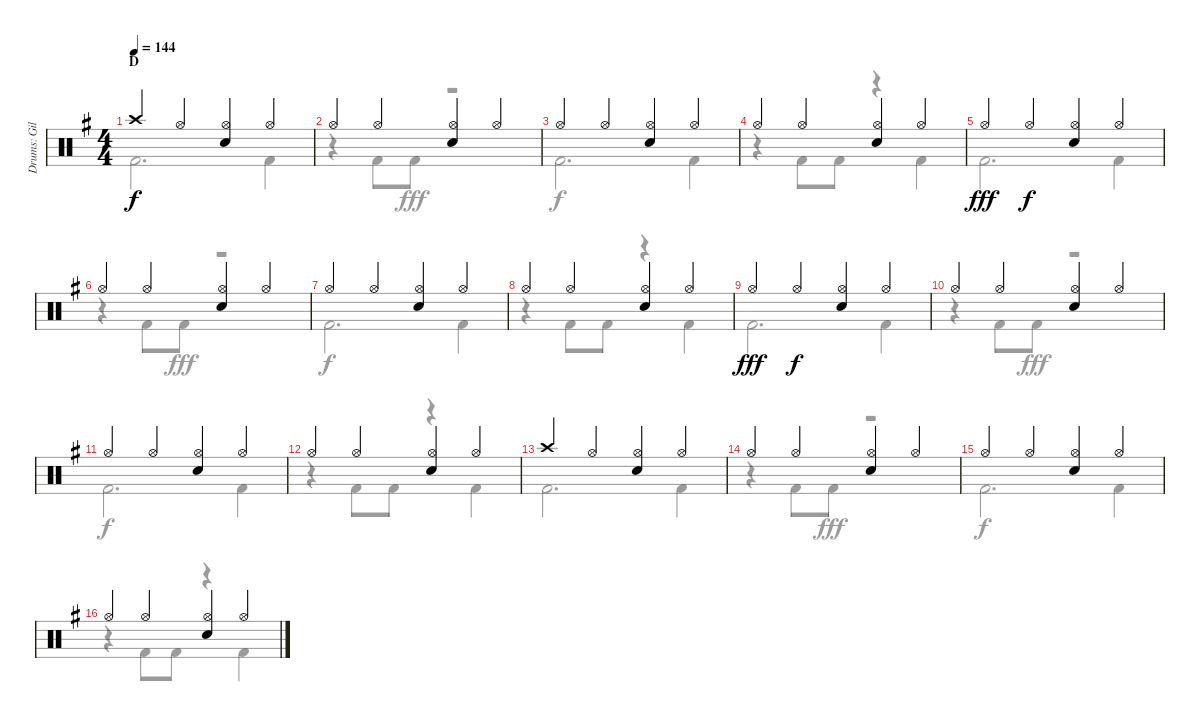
\track ("Drums: Gil" "Drums: Gil") {instrument percussion}
\staff {score}
\articulation defaults
\voice
\ts (4 4)
\section ("" "D")
\tempo 144
\clef neutral
\ks g "Crash high (hit)".4{dy f} "Hi-Hat (open)".4
("Hi-Hat (open)" "Snare (hit) 2").4 "Hi-Hat (open)".4 |
"Hi-Hat (open)".4 "Hi-Hat (open)".4 ("Hi-Hat (open)" "Snare (hit) 2").4 "Hi-Hat (open)".4 |
"Hi-Hat (open)".4 "Hi-Hat (open)".4 ("Hi-Hat (open)" "Snare (hit) 2").4 "Hi-Hat (open)".4 |
"Hi-Hat (open)".4 "Hi-Hat (open)".4 ("Hi-Hat (open)" "Snare (hit) 2").4 "Hi-Hat (open)".4 |
"Hi-Hat (open)".4{dy fff} "Hi-Hat (open)".4{dy f} ("Hi-Hat (open)" "Snare (hit) 2").4 "Hi-Hat (open)".4 |
"Hi-Hat (open)".4 "Hi-Hat (open)".4 ("Hi-Hat (open)" "Snare (hit) 2").4 "Hi-Hat (open)".4 |
"Hi-Hat (open)".4 "Hi-Hat (open)".4 ("Hi-Hat (open)" "Snare (hit) 2").4 "Hi-Hat (open)".4 |
"Hi-Hat (open)".4 "Hi-Hat (open)".4 ("Hi-Hat (open)" "Snare (hit) 2").4 "Hi-Hat (open)".4 |
"Hi-Hat (open)".4{dy fff} "Hi-Hat (open)".4{dy f} ("Hi-Hat (open)" "Snare (hit) 2").4 "Hi-Hat (open)".4 |
"Hi-Hat (open)".4 "Hi-Hat (open)".4 ("Hi-Hat (open)" "Snare (hit) 2").4 "Hi-Hat (open)".4 |
"Hi-Hat (open)".4 "Hi-Hat (open)".4 ("Hi-Hat (open)" "Snare (hit) 2").4 "Hi-Hat (open)".4 |
"Hi-Hat (open)".4 "Hi-Hat (open)".4 ("Hi-Hat (open)" "Snare (hit) 2").4 "Hi-Hat (open)".4 |
"Crash high (hit)".4 "Hi-Hat (open)".4 ("Hi-Hat (open)" "Snare (hit) 2").4 "Hi-Hat (open)".4 |
"Hi-Hat (open)".4 "Hi-Hat (open)".4 ("Hi-Hat (open)" "Snare (hit) 2").4 "Hi-Hat (open)".4 |
"Hi-Hat (open)".4 "Hi-Hat (open)".4 ("Hi-Hat (open)" "Snare (hit) 2").4 "Hi-Hat (open)".4 |
"Hi-Hat (open)".4 "Hi-Hat (open)".4 ("Hi-Hat (open)" "Snare (hit) 2").4 "Hi-Hat (open)".4
\voice
\clef neutral
\ottava regular
\simile none
\ks g "Kick (hit) 2".2{d dy f} "Kick (hit) 2".4
|
r.4 "Kick (hit) 2".8 "Kick (hit) 2".8{dy fff} r.2 |
"Kick (hit) 2".2{d dy f} "Kick (hit) 2".4 |
r.4 "Kick (hit) 2".8 "Kick (hit) 2".8 r.4 "Kick (hit) 2".4 |
"Kick (hit) 2".2{d} "Kick (hit) 2".4 |
r.4 "Kick (hit) 2".8 "Kick (hit) 2".8{dy fff} r.2 |
"Kick (hit) 2".2{d dy f} "Kick (hit) 2".4 |
r.4 "Kick (hit) 2".8 "Kick (hit) 2".8 r.4 "Kick (hit) 2".4 |
"Kick (hit) 2".2{d} "Kick (hit) 2".4 |
r.4 "Kick (hit) 2".8 "Kick (hit) 2".8{dy fff} r.2 |
"Kick (hit) 2".2{d dy f} "Kick (hit) 2".4 |
r.4 "Kick (hit) 2".8 "Kick (hit) 2".8 r.4 "Kick (hit) 2".4 |
"Kick (hit) 2".2{d} "Kick (hit) 2".4 |
r.4 "Kick (hit) 2".8 "Kick (hit) 2".8{dy fff} r.2 |
"Kick (hit) 2".2{d dy f} "Kick (hit) 2".4 |
r.4 "Kick (hit) 2".8 "Kick (hit) 2".8 r.4 "Kick (hit) 2".4
